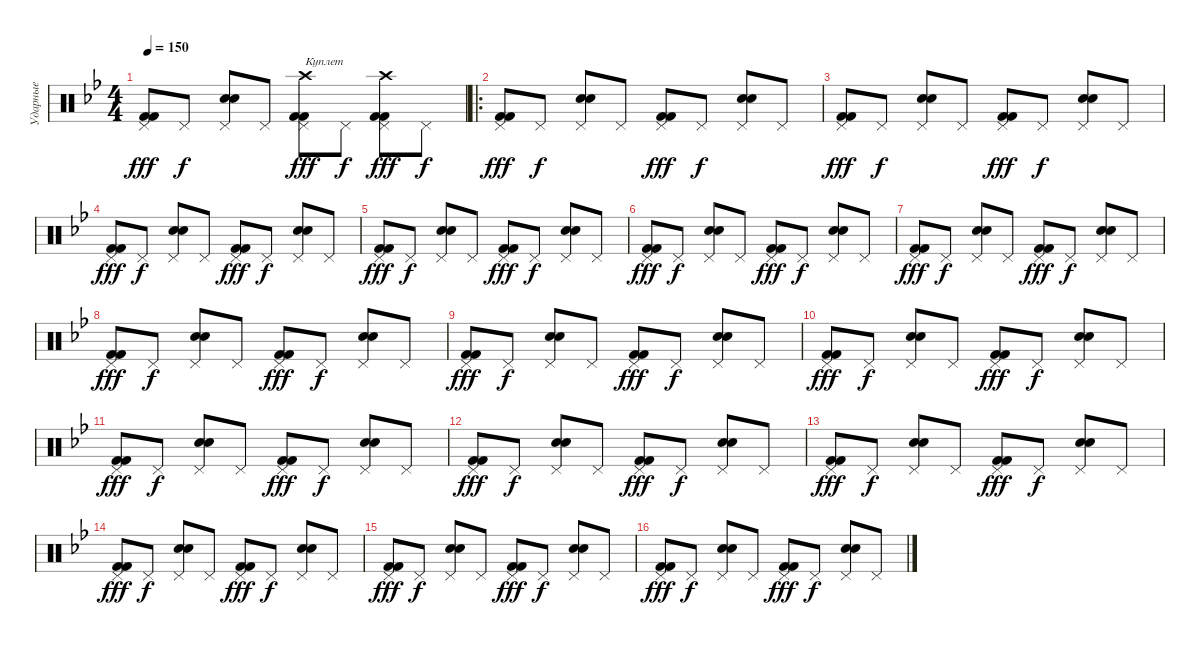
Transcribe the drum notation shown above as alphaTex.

\track ("Ударные" "Ударные") {instrument percussion}
\staff {score}
\articulation defaults
\ts (4 4)
\tempo 150
\clef neutral
\ks gminor
("Kick (hit) 2" "Kick (hit) 2" "Pedal Hi-Hat (hit)").8{dy fff} "Pedal Hi-Hat (hit)".8{dy f} ("Electric Snare (hit)" "Electric Snare (hit)" "Pedal Hi-Hat (hit)").8 "Pedal Hi-Hat (hit)".8 ("Kick (hit) 2" "Crash high (hit)" "Kick (hit) 2" "Pedal Hi-Hat (hit)").8{txt "Куплет" dy fff} "Pedal Hi-Hat (hit)".8{dy f} ("Kick (hit) 2" "Crash high (hit)" "Kick (hit) 2" "Pedal Hi-Hat (hit)").8{dy fff} "Pedal Hi-Hat (hit)".8{dy f} |
\ro
("Kick (hit) 2" "Kick (hit) 2" "Pedal Hi-Hat (hit)").8{dy fff} "Pedal Hi-Hat (hit)".8{dy f} ("Electric Snare (hit)" "Electric Snare (hit)" "Pedal Hi-Hat (hit)").8 "Pedal Hi-Hat (hit)".8 ("Kick (hit) 2" "Kick (hit) 2" "Pedal Hi-Hat (hit)").8{dy fff} "Pedal Hi-Hat (hit)".8{dy f} ("Electric Snare (hit)" "Electric Snare (hit)" "Pedal Hi-Hat (hit)").8 "Pedal Hi-Hat (hit)".8 |
("Kick (hit) 2" "Kick (hit) 2" "Pedal Hi-Hat (hit)").8{dy fff} "Pedal Hi-Hat (hit)".8{dy f} ("Electric Snare (hit)" "Electric Snare (hit)" "Pedal Hi-Hat (hit)").8 "Pedal Hi-Hat (hit)".8 ("Kick (hit) 2" "Kick (hit) 2" "Pedal Hi-Hat (hit)").8{dy fff} "Pedal Hi-Hat (hit)".8{dy f} ("Electric Snare (hit)" "Electric Snare (hit)" "Pedal Hi-Hat (hit)").8 "Pedal Hi-Hat (hit)".8 |
("Kick (hit) 2" "Kick (hit) 2" "Pedal Hi-Hat (hit)").8{dy fff} "Pedal Hi-Hat (hit)".8{dy f} ("Electric Snare (hit)" "Electric Snare (hit)" "Pedal Hi-Hat (hit)").8 "Pedal Hi-Hat (hit)".8 ("Kick (hit) 2" "Kick (hit) 2" "Pedal Hi-Hat (hit)").8{dy fff} "Pedal Hi-Hat (hit)".8{dy f} ("Electric Snare (hit)" "Electric Snare (hit)" "Pedal Hi-Hat (hit)").8 "Pedal Hi-Hat (hit)".8 |
("Kick (hit) 2" "Kick (hit) 2" "Pedal Hi-Hat (hit)").8{dy fff} "Pedal Hi-Hat (hit)".8{dy f} ("Electric Snare (hit)" "Electric Snare (hit)" "Pedal Hi-Hat (hit)").8 "Pedal Hi-Hat (hit)".8 ("Kick (hit) 2" "Kick (hit) 2" "Pedal Hi-Hat (hit)").8{dy fff} "Pedal Hi-Hat (hit)".8{dy f} ("Electric Snare (hit)" "Electric Snare (hit)" "Pedal Hi-Hat (hit)").8 "Pedal Hi-Hat (hit)".8 |
("Kick (hit) 2" "Kick (hit) 2" "Pedal Hi-Hat (hit)").8{dy fff} "Pedal Hi-Hat (hit)".8{dy f} ("Electric Snare (hit)" "Electric Snare (hit)" "Pedal Hi-Hat (hit)").8 "Pedal Hi-Hat (hit)".8 ("Kick (hit) 2" "Kick (hit) 2" "Pedal Hi-Hat (hit)").8{dy fff} "Pedal Hi-Hat (hit)".8{dy f} ("Electric Snare (hit)" "Electric Snare (hit)" "Pedal Hi-Hat (hit)").8 "Pedal Hi-Hat (hit)".8 |
("Kick (hit) 2" "Kick (hit) 2" "Pedal Hi-Hat (hit)").8{dy fff} "Pedal Hi-Hat (hit)".8{dy f} ("Electric Snare (hit)" "Electric Snare (hit)" "Pedal Hi-Hat (hit)").8 "Pedal Hi-Hat (hit)".8 ("Kick (hit) 2" "Kick (hit) 2" "Pedal Hi-Hat (hit)").8{dy fff} "Pedal Hi-Hat (hit)".8{dy f} ("Electric Snare (hit)" "Electric Snare (hit)" "Pedal Hi-Hat (hit)").8 "Pedal Hi-Hat (hit)".8 |
("Kick (hit) 2" "Kick (hit) 2" "Pedal Hi-Hat (hit)").8{dy fff} "Pedal Hi-Hat (hit)".8{dy f} ("Electric Snare (hit)" "Electric Snare (hit)" "Pedal Hi-Hat (hit)").8 "Pedal Hi-Hat (hit)".8 ("Kick (hit) 2" "Kick (hit) 2" "Pedal Hi-Hat (hit)").8{dy fff} "Pedal Hi-Hat (hit)".8{dy f} ("Electric Snare (hit)" "Electric Snare (hit)" "Pedal Hi-Hat (hit)").8 "Pedal Hi-Hat (hit)".8 |
("Kick (hit) 2" "Kick (hit) 2" "Pedal Hi-Hat (hit)").8{dy fff} "Pedal Hi-Hat (hit)".8{dy f} ("Electric Snare (hit)" "Electric Snare (hit)" "Pedal Hi-Hat (hit)").8 "Pedal Hi-Hat (hit)".8 ("Kick (hit) 2" "Kick (hit) 2" "Pedal Hi-Hat (hit)").8{dy fff} "Pedal Hi-Hat (hit)".8{dy f} ("Electric Snare (hit)" "Electric Snare (hit)" "Pedal Hi-Hat (hit)").8 "Pedal Hi-Hat (hit)".8 |
("Kick (hit) 2" "Kick (hit) 2" "Pedal Hi-Hat (hit)").8{dy fff} "Pedal Hi-Hat (hit)".8{dy f} ("Electric Snare (hit)" "Electric Snare (hit)" "Pedal Hi-Hat (hit)").8 "Pedal Hi-Hat (hit)".8 ("Kick (hit) 2" "Kick (hit) 2" "Pedal Hi-Hat (hit)").8{dy fff} "Pedal Hi-Hat (hit)".8{dy f} ("Electric Snare (hit)" "Electric Snare (hit)" "Pedal Hi-Hat (hit)").8 "Pedal Hi-Hat (hit)".8 |
("Kick (hit) 2" "Kick (hit) 2" "Pedal Hi-Hat (hit)").8{dy fff} "Pedal Hi-Hat (hit)".8{dy f} ("Electric Snare (hit)" "Electric Snare (hit)" "Pedal Hi-Hat (hit)").8 "Pedal Hi-Hat (hit)".8 ("Kick (hit) 2" "Kick (hit) 2" "Pedal Hi-Hat (hit)").8{dy fff} "Pedal Hi-Hat (hit)".8{dy f} ("Electric Snare (hit)" "Electric Snare (hit)" "Pedal Hi-Hat (hit)").8 "Pedal Hi-Hat (hit)".8 |
("Kick (hit) 2" "Kick (hit) 2" "Pedal Hi-Hat (hit)").8{dy fff} "Pedal Hi-Hat (hit)".8{dy f} ("Electric Snare (hit)" "Electric Snare (hit)" "Pedal Hi-Hat (hit)").8 "Pedal Hi-Hat (hit)".8 ("Kick (hit) 2" "Kick (hit) 2" "Pedal Hi-Hat (hit)").8{dy fff} "Pedal Hi-Hat (hit)".8{dy f} ("Electric Snare (hit)" "Electric Snare (hit)" "Pedal Hi-Hat (hit)").8 "Pedal Hi-Hat (hit)".8 |
("Kick (hit) 2" "Kick (hit) 2" "Pedal Hi-Hat (hit)").8{dy fff} "Pedal Hi-Hat (hit)".8{dy f} ("Electric Snare (hit)" "Electric Snare (hit)" "Pedal Hi-Hat (hit)").8 "Pedal Hi-Hat (hit)".8 ("Kick (hit) 2" "Kick (hit) 2" "Pedal Hi-Hat (hit)").8{dy fff} "Pedal Hi-Hat (hit)".8{dy f} ("Electric Snare (hit)" "Electric Snare (hit)" "Pedal Hi-Hat (hit)").8 "Pedal Hi-Hat (hit)".8 |
("Kick (hit) 2" "Kick (hit) 2" "Pedal Hi-Hat (hit)").8{dy fff} "Pedal Hi-Hat (hit)".8{dy f} ("Electric Snare (hit)" "Electric Snare (hit)" "Pedal Hi-Hat (hit)").8 "Pedal Hi-Hat (hit)".8 ("Kick (hit) 2" "Kick (hit) 2" "Pedal Hi-Hat (hit)").8{dy fff} "Pedal Hi-Hat (hit)".8{dy f} ("Electric Snare (hit)" "Electric Snare (hit)" "Pedal Hi-Hat (hit)").8 "Pedal Hi-Hat (hit)".8 |
("Kick (hit) 2" "Kick (hit) 2" "Pedal Hi-Hat (hit)").8{dy fff} "Pedal Hi-Hat (hit)".8{dy f} ("Electric Snare (hit)" "Electric Snare (hit)" "Pedal Hi-Hat (hit)").8 "Pedal Hi-Hat (hit)".8 ("Kick (hit) 2" "Kick (hit) 2" "Pedal Hi-Hat (hit)").8{dy fff} "Pedal Hi-Hat (hit)".8{dy f} ("Electric Snare (hit)" "Electric Snare (hit)" "Pedal Hi-Hat (hit)").8 "Pedal Hi-Hat (hit)".8 |
("Kick (hit) 2" "Kick (hit) 2" "Pedal Hi-Hat (hit)").8{dy fff} "Pedal Hi-Hat (hit)".8{dy f} ("Electric Snare (hit)" "Electric Snare (hit)" "Pedal Hi-Hat (hit)").8 "Pedal Hi-Hat (hit)".8 ("Kick (hit) 2" "Kick (hit) 2" "Pedal Hi-Hat (hit)").8{dy fff} "Pedal Hi-Hat (hit)".8{dy f} ("Electric Snare (hit)" "Electric Snare (hit)" "Pedal Hi-Hat (hit)").8 "Pedal Hi-Hat (hit)".8
